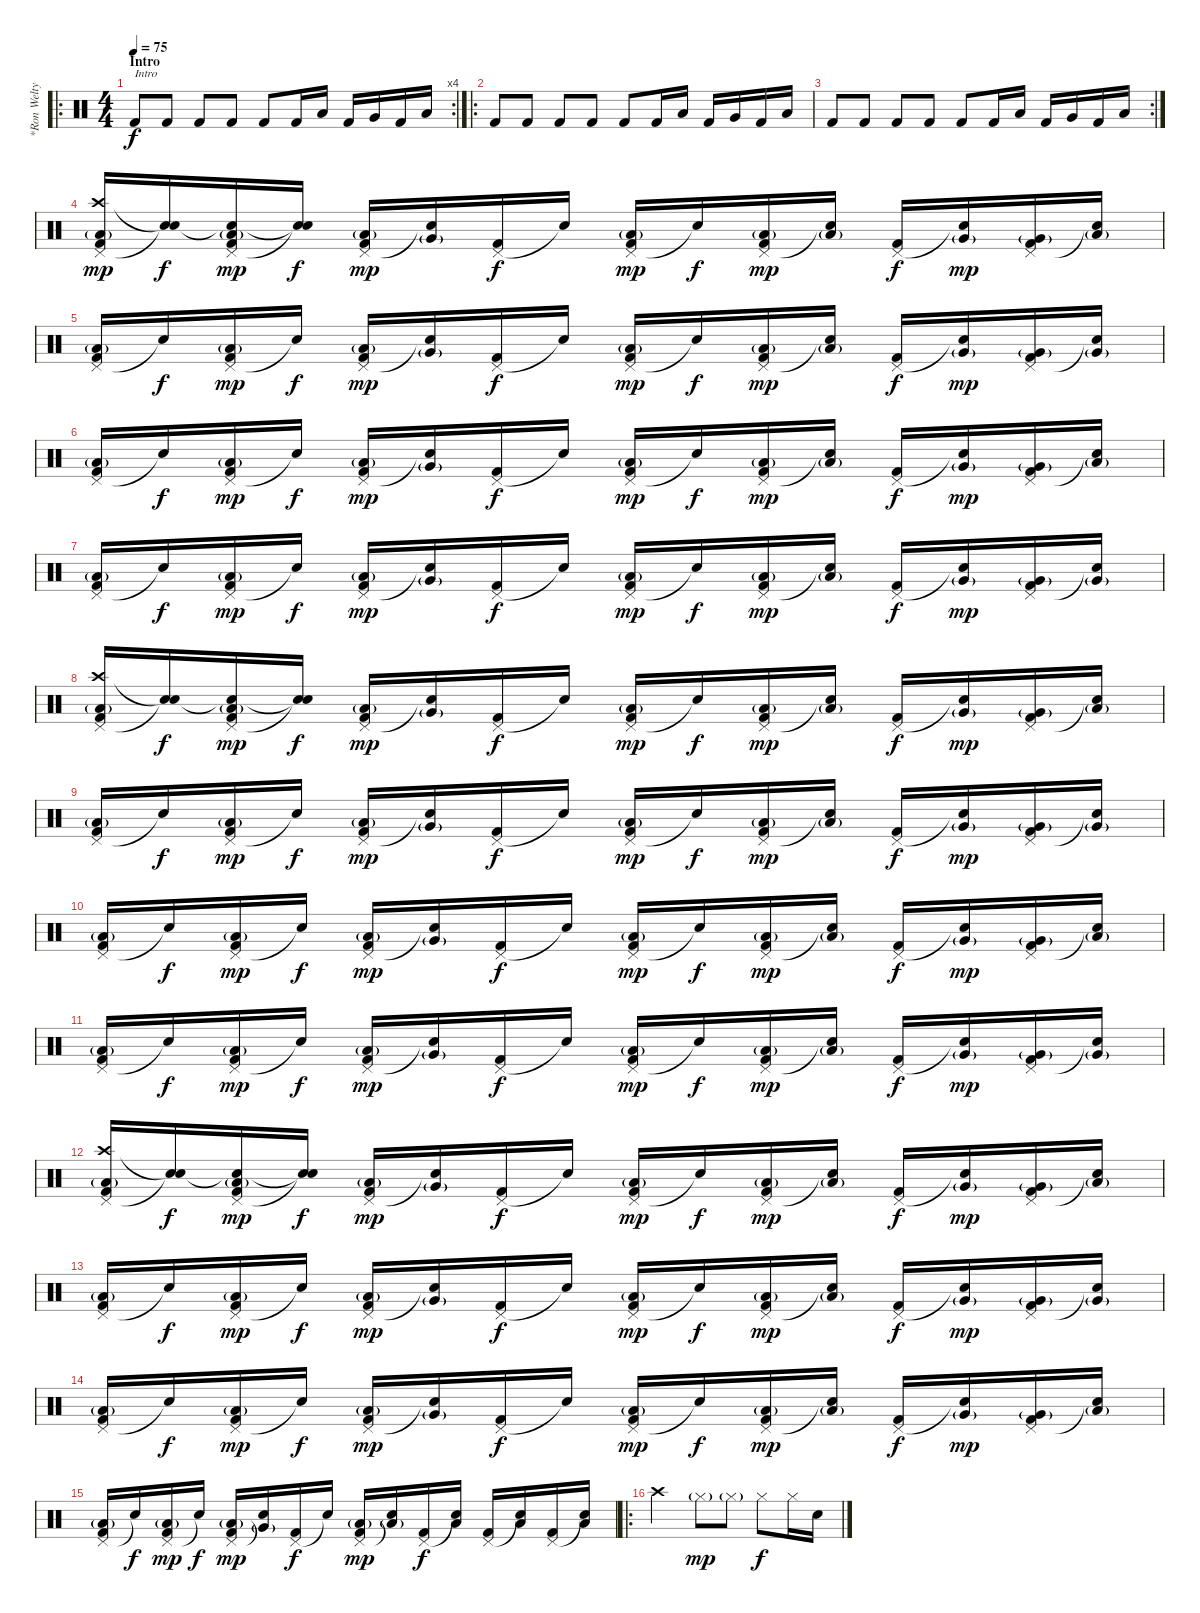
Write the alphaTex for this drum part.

\track ("*Ron Welty (Ex-drummer)" "*Ron Welty") {instrument percussion}
\staff {score}
\articulation defaults
\ro
\rc 4
\ts (4 4)
\section ("" "Intro")
\tempo 75
\clef neutral
\ks c "Kick (hit) 2".8{txt "Intro" dy f} "Kick (hit) 2".8 "Kick (hit) 2".8 "Kick (hit) 2".8 "Kick (hit) 2".8 "Kick (hit) 2".16 "Low Tom (hit)".16 "Kick (hit) 2".16 "Very Low Tom (hit)".16 "Kick (hit) 2".16 "Low Floor Tom (hit)".16
|
\ro "Kick (hit) 2".8 "Kick (hit) 2".8 "Kick (hit) 2".8 "Kick (hit) 2".8 "Kick (hit) 2".8 "Kick (hit) 2".16 "Low Tom (hit)".16 "Kick (hit) 2".16 "Very Low Tom (hit)".16 "Kick (hit) 2".16 "Low Floor Tom (hit)".16
|
\rc 2 "Kick (hit) 2".8 "Kick (hit) 2".8 "Kick (hit) 2".8 "Kick (hit) 2".8 "Kick (hit) 2".8 "Kick (hit) 2".16 "Low Tom (hit)".16 "Kick (hit) 2".16 "Very Low Tom (hit)".16 "Kick (hit) 2".16 "Low Floor Tom (hit)".16
|
("Crash high (hit)" "Pedal Hi-Hat (hit)" "Low Tom (hit)"{g} "Kick (hit) 2").16{dy mp} ("Snare (hit)"{t} "Snare (hit)"{t}).16{dy f} ("Snare (hit)"{t} "Pedal Hi-Hat (hit)" "Low Tom (hit)"{g} "Kick (hit) 2").16{dy mp} ("Snare (hit)"{t} "Snare (hit)"{t}).16{dy f} ("Pedal Hi-Hat (hit)" "Low Tom (hit)"{g} "Kick (hit) 2").16{dy mp} ("Snare (hit)"{t} "Very Low Tom (hit)"{g}).16 ("Pedal Hi-Hat (hit)" "Kick (hit) 2").16{dy f} "Snare (hit)"{t}.16 ("Pedal Hi-Hat (hit)" "Low Tom (hit)"{g} "Kick (hit) 2").16{dy mp} "Snare (hit)"{t}.16{dy f} ("Pedal Hi-Hat (hit)" "Low Tom (hit)"{g} "Kick (hit) 2").16{dy mp} ("Snare (hit)"{t} "Low Tom (hit)"{g}).16 ("Pedal Hi-Hat (hit)" "Kick (hit) 2").16{dy f} ("Snare (hit)"{t} "Very Low Tom (hit)"{g}).16{dy mp} ("Pedal Hi-Hat (hit)" "Very Low Tom (hit)"{g} "Kick (hit) 2").16 ("Snare (hit)"{t} "Low Floor Tom (hit)"{g}).16 |
("Pedal Hi-Hat (hit)" "Low Tom (hit)"{g} "Kick (hit) 2").16 "Snare (hit)"{t}.16{dy f} ("Pedal Hi-Hat (hit)" "Low Tom (hit)"{g} "Kick (hit) 2").16{dy mp} "Snare (hit)"{t}.16{dy f} ("Pedal Hi-Hat (hit)" "Low Tom (hit)"{g} "Kick (hit) 2").16{dy mp} ("Snare (hit)"{t} "Very Low Tom (hit)"{g}).16 ("Pedal Hi-Hat (hit)" "Kick (hit) 2").16{dy f} "Snare (hit)"{t}.16 ("Pedal Hi-Hat (hit)" "Low Tom (hit)"{g} "Kick (hit) 2").16{dy mp} "Snare (hit)"{t}.16{dy f} ("Pedal Hi-Hat (hit)" "Low Tom (hit)"{g} "Kick (hit) 2").16{dy mp} ("Snare (hit)"{t} "Low Tom (hit)"{g}).16 ("Pedal Hi-Hat (hit)" "Kick (hit) 2").16{dy f} ("Snare (hit)"{t} "Very Low Tom (hit)"{g}).16{dy mp} ("Pedal Hi-Hat (hit)" "Very Low Tom (hit)"{g} "Kick (hit) 2").16 ("Snare (hit)"{t} "Very Low Tom (hit)"{g}).16 |
("Pedal Hi-Hat (hit)" "Low Tom (hit)"{g} "Kick (hit) 2").16 "Snare (hit)"{t}.16{dy f} ("Pedal Hi-Hat (hit)" "Low Tom (hit)"{g} "Kick (hit) 2").16{dy mp} "Snare (hit)"{t}.16{dy f} ("Pedal Hi-Hat (hit)" "Low Tom (hit)"{g} "Kick (hit) 2").16{dy mp} ("Snare (hit)"{t} "Very Low Tom (hit)"{g}).16 ("Pedal Hi-Hat (hit)" "Kick (hit) 2").16{dy f} "Snare (hit)"{t}.16 ("Pedal Hi-Hat (hit)" "Low Tom (hit)"{g} "Kick (hit) 2").16{dy mp} "Snare (hit)"{t}.16{dy f} ("Pedal Hi-Hat (hit)" "Low Tom (hit)"{g} "Kick (hit) 2").16{dy mp} ("Snare (hit)"{t} "Low Tom (hit)"{g}).16 ("Pedal Hi-Hat (hit)" "Kick (hit) 2").16{dy f} ("Snare (hit)"{t} "Very Low Tom (hit)"{g}).16{dy mp} ("Pedal Hi-Hat (hit)" "Very Low Tom (hit)"{g} "Kick (hit) 2").16 ("Snare (hit)"{t} "Low Floor Tom (hit)"{g}).16 |
("Pedal Hi-Hat (hit)" "Low Tom (hit)"{g} "Kick (hit) 2").16 "Snare (hit)"{t}.16{dy f} ("Pedal Hi-Hat (hit)" "Low Tom (hit)"{g} "Kick (hit) 2").16{dy mp} "Snare (hit)"{t}.16{dy f} ("Pedal Hi-Hat (hit)" "Low Tom (hit)"{g} "Kick (hit) 2").16{dy mp} ("Snare (hit)"{t} "Very Low Tom (hit)"{g}).16 ("Pedal Hi-Hat (hit)" "Kick (hit) 2").16{dy f} "Snare (hit)"{t}.16 ("Pedal Hi-Hat (hit)" "Low Tom (hit)"{g} "Kick (hit) 2").16{dy mp} "Snare (hit)"{t}.16{dy f} ("Pedal Hi-Hat (hit)" "Low Tom (hit)"{g} "Kick (hit) 2").16{dy mp} ("Snare (hit)"{t} "Low Tom (hit)"{g}).16 ("Pedal Hi-Hat (hit)" "Kick (hit) 2").16{dy f} ("Snare (hit)"{t} "Very Low Tom (hit)"{g}).16{dy mp} ("Pedal Hi-Hat (hit)" "Very Low Tom (hit)"{g} "Kick (hit) 2").16 ("Snare (hit)"{t} "Very Low Tom (hit)"{g}).16 |
("Crash high (hit)" "Pedal Hi-Hat (hit)" "Low Tom (hit)"{g} "Kick (hit) 2").16 ("Snare (hit)"{t} "Snare (hit)"{t}).16{dy f} ("Snare (hit)"{t} "Pedal Hi-Hat (hit)" "Low Tom (hit)"{g} "Kick (hit) 2").16{dy mp} ("Snare (hit)"{t} "Snare (hit)"{t}).16{dy f} ("Pedal Hi-Hat (hit)" "Low Tom (hit)"{g} "Kick (hit) 2").16{dy mp} ("Snare (hit)"{t} "Very Low Tom (hit)"{g}).16 ("Pedal Hi-Hat (hit)" "Kick (hit) 2").16{dy f} "Snare (hit)"{t}.16 ("Pedal Hi-Hat (hit)" "Low Tom (hit)"{g} "Kick (hit) 2").16{dy mp} "Snare (hit)"{t}.16{dy f} ("Pedal Hi-Hat (hit)" "Low Tom (hit)"{g} "Kick (hit) 2").16{dy mp} ("Snare (hit)"{t} "Low Tom (hit)"{g}).16 ("Pedal Hi-Hat (hit)" "Kick (hit) 2").16{dy f} ("Snare (hit)"{t} "Very Low Tom (hit)"{g}).16{dy mp} ("Pedal Hi-Hat (hit)" "Very Low Tom (hit)"{g} "Kick (hit) 2").16 ("Snare (hit)"{t} "Low Floor Tom (hit)"{g}).16 |
("Pedal Hi-Hat (hit)" "Low Tom (hit)"{g} "Kick (hit) 2").16 "Snare (hit)"{t}.16{dy f} ("Pedal Hi-Hat (hit)" "Low Tom (hit)"{g} "Kick (hit) 2").16{dy mp} "Snare (hit)"{t}.16{dy f} ("Pedal Hi-Hat (hit)" "Low Tom (hit)"{g} "Kick (hit) 2").16{dy mp} ("Snare (hit)"{t} "Very Low Tom (hit)"{g}).16 ("Pedal Hi-Hat (hit)" "Kick (hit) 2").16{dy f} "Snare (hit)"{t}.16 ("Pedal Hi-Hat (hit)" "Low Tom (hit)"{g} "Kick (hit) 2").16{dy mp} "Snare (hit)"{t}.16{dy f} ("Pedal Hi-Hat (hit)" "Low Tom (hit)"{g} "Kick (hit) 2").16{dy mp} ("Snare (hit)"{t} "Low Tom (hit)"{g}).16 ("Pedal Hi-Hat (hit)" "Kick (hit) 2").16{dy f} ("Snare (hit)"{t} "Very Low Tom (hit)"{g}).16{dy mp} ("Pedal Hi-Hat (hit)" "Very Low Tom (hit)"{g} "Kick (hit) 2").16 ("Snare (hit)"{t} "Very Low Tom (hit)"{g}).16 |
("Pedal Hi-Hat (hit)" "Low Tom (hit)"{g} "Kick (hit) 2").16 "Snare (hit)"{t}.16{dy f} ("Pedal Hi-Hat (hit)" "Low Tom (hit)"{g} "Kick (hit) 2").16{dy mp} "Snare (hit)"{t}.16{dy f} ("Pedal Hi-Hat (hit)" "Low Tom (hit)"{g} "Kick (hit) 2").16{dy mp} ("Snare (hit)"{t} "Very Low Tom (hit)"{g}).16 ("Pedal Hi-Hat (hit)" "Kick (hit) 2").16{dy f} "Snare (hit)"{t}.16 ("Pedal Hi-Hat (hit)" "Low Tom (hit)"{g} "Kick (hit) 2").16{dy mp} "Snare (hit)"{t}.16{dy f} ("Pedal Hi-Hat (hit)" "Low Tom (hit)"{g} "Kick (hit) 2").16{dy mp} ("Snare (hit)"{t} "Low Tom (hit)"{g}).16 ("Pedal Hi-Hat (hit)" "Kick (hit) 2").16{dy f} ("Snare (hit)"{t} "Very Low Tom (hit)"{g}).16{dy mp} ("Pedal Hi-Hat (hit)" "Very Low Tom (hit)"{g} "Kick (hit) 2").16 ("Snare (hit)"{t} "Low Floor Tom (hit)"{g}).16 |
("Pedal Hi-Hat (hit)" "Low Tom (hit)"{g} "Kick (hit) 2").16 "Snare (hit)"{t}.16{dy f} ("Pedal Hi-Hat (hit)" "Low Tom (hit)"{g} "Kick (hit) 2").16{dy mp} "Snare (hit)"{t}.16{dy f} ("Pedal Hi-Hat (hit)" "Low Tom (hit)"{g} "Kick (hit) 2").16{dy mp} ("Snare (hit)"{t} "Very Low Tom (hit)"{g}).16 ("Pedal Hi-Hat (hit)" "Kick (hit) 2").16{dy f} "Snare (hit)"{t}.16 ("Pedal Hi-Hat (hit)" "Low Tom (hit)"{g} "Kick (hit) 2").16{dy mp} "Snare (hit)"{t}.16{dy f} ("Pedal Hi-Hat (hit)" "Low Tom (hit)"{g} "Kick (hit) 2").16{dy mp} ("Snare (hit)"{t} "Low Tom (hit)"{g}).16 ("Pedal Hi-Hat (hit)" "Kick (hit) 2").16{dy f} ("Snare (hit)"{t} "Very Low Tom (hit)"{g}).16{dy mp} ("Pedal Hi-Hat (hit)" "Very Low Tom (hit)"{g} "Kick (hit) 2").16 ("Snare (hit)"{t} "Very Low Tom (hit)"{g}).16 |
("Crash high (hit)" "Pedal Hi-Hat (hit)" "Low Tom (hit)"{g} "Kick (hit) 2").16 ("Snare (hit)"{t} "Snare (hit)"{t}).16{dy f} ("Snare (hit)"{t} "Pedal Hi-Hat (hit)" "Low Tom (hit)"{g} "Kick (hit) 2").16{dy mp} ("Snare (hit)"{t} "Snare (hit)"{t}).16{dy f} ("Pedal Hi-Hat (hit)" "Low Tom (hit)"{g} "Kick (hit) 2").16{dy mp} ("Snare (hit)"{t} "Very Low Tom (hit)"{g}).16 ("Pedal Hi-Hat (hit)" "Kick (hit) 2").16{dy f} "Snare (hit)"{t}.16 ("Pedal Hi-Hat (hit)" "Low Tom (hit)"{g} "Kick (hit) 2").16{dy mp} "Snare (hit)"{t}.16{dy f} ("Pedal Hi-Hat (hit)" "Low Tom (hit)"{g} "Kick (hit) 2").16{dy mp} ("Snare (hit)"{t} "Low Tom (hit)"{g}).16 ("Pedal Hi-Hat (hit)" "Kick (hit) 2").16{dy f} ("Snare (hit)"{t} "Very Low Tom (hit)"{g}).16{dy mp} ("Pedal Hi-Hat (hit)" "Very Low Tom (hit)"{g} "Kick (hit) 2").16 ("Snare (hit)"{t} "Low Floor Tom (hit)"{g}).16 |
("Pedal Hi-Hat (hit)" "Low Tom (hit)"{g} "Kick (hit) 2").16 "Snare (hit)"{t}.16{dy f} ("Pedal Hi-Hat (hit)" "Low Tom (hit)"{g} "Kick (hit) 2").16{dy mp} "Snare (hit)"{t}.16{dy f} ("Pedal Hi-Hat (hit)" "Low Tom (hit)"{g} "Kick (hit) 2").16{dy mp} ("Snare (hit)"{t} "Very Low Tom (hit)"{g}).16 ("Pedal Hi-Hat (hit)" "Kick (hit) 2").16{dy f} "Snare (hit)"{t}.16 ("Pedal Hi-Hat (hit)" "Low Tom (hit)"{g} "Kick (hit) 2").16{dy mp} "Snare (hit)"{t}.16{dy f} ("Pedal Hi-Hat (hit)" "Low Tom (hit)"{g} "Kick (hit) 2").16{dy mp} ("Snare (hit)"{t} "Low Tom (hit)"{g}).16 ("Pedal Hi-Hat (hit)" "Kick (hit) 2").16{dy f} ("Snare (hit)"{t} "Very Low Tom (hit)"{g}).16{dy mp} ("Pedal Hi-Hat (hit)" "Very Low Tom (hit)"{g} "Kick (hit) 2").16 ("Snare (hit)"{t} "Very Low Tom (hit)"{g}).16 |
("Pedal Hi-Hat (hit)" "Low Tom (hit)"{g} "Kick (hit) 2").16 "Snare (hit)"{t}.16{dy f} ("Pedal Hi-Hat (hit)" "Low Tom (hit)"{g} "Kick (hit) 2").16{dy mp} "Snare (hit)"{t}.16{dy f} ("Pedal Hi-Hat (hit)" "Low Tom (hit)"{g} "Kick (hit) 2").16{dy mp} ("Snare (hit)"{t} "Very Low Tom (hit)"{g}).16 ("Pedal Hi-Hat (hit)" "Kick (hit) 2").16{dy f} "Snare (hit)"{t}.16 ("Pedal Hi-Hat (hit)" "Low Tom (hit)"{g} "Kick (hit) 2").16{dy mp} "Snare (hit)"{t}.16{dy f} ("Pedal Hi-Hat (hit)" "Low Tom (hit)"{g} "Kick (hit) 2").16{dy mp} ("Snare (hit)"{t} "Low Tom (hit)"{g}).16 ("Pedal Hi-Hat (hit)" "Kick (hit) 2").16{dy f} ("Snare (hit)"{t} "Very Low Tom (hit)"{g}).16{dy mp} ("Pedal Hi-Hat (hit)" "Very Low Tom (hit)"{g} "Kick (hit) 2").16 ("Snare (hit)"{t} "Low Floor Tom (hit)"{g}).16 |
("Pedal Hi-Hat (hit)" "Low Tom (hit)"{g} "Kick (hit) 2").16 "Snare (hit)"{t}.16{dy f} ("Pedal Hi-Hat (hit)" "Low Tom (hit)"{g} "Kick (hit) 2").16{dy mp} "Snare (hit)"{t}.16{dy f} ("Pedal Hi-Hat (hit)" "Low Tom (hit)"{g} "Kick (hit) 2").16{dy mp} ("Snare (hit)"{t} "Very Low Tom (hit)"{g}).16 ("Pedal Hi-Hat (hit)" "Kick (hit) 2").16{dy f} "Snare (hit)"{t}.16 ("Pedal Hi-Hat (hit)" "Low Tom (hit)"{g} "Kick (hit) 2").16{dy mp} ("Snare (hit)"{t} "Low Tom (hit)"{g}).16 ("Pedal Hi-Hat (hit)" "Kick (hit) 2").16{dy f} ("Snare (hit)"{t} "Low Tom (hit)").16 ("Pedal Hi-Hat (hit)" "Kick (hit) 2").16 ("Snare (hit)"{t} "Low Tom (hit)").16 ("Pedal Hi-Hat (hit)" "Kick (hit) 2").16 ("Snare (hit)"{t} "Low Tom (hit)").16 |
\ro "Crash high (hit)".2 "Hi-Hat (closed)"{g}.8{dy mp} "Hi-Hat (closed)"{g}.8 "Hi-Hat (closed)".8{dy f} "Hi-Hat (closed)".16 "Electric Snare (hit)".16
